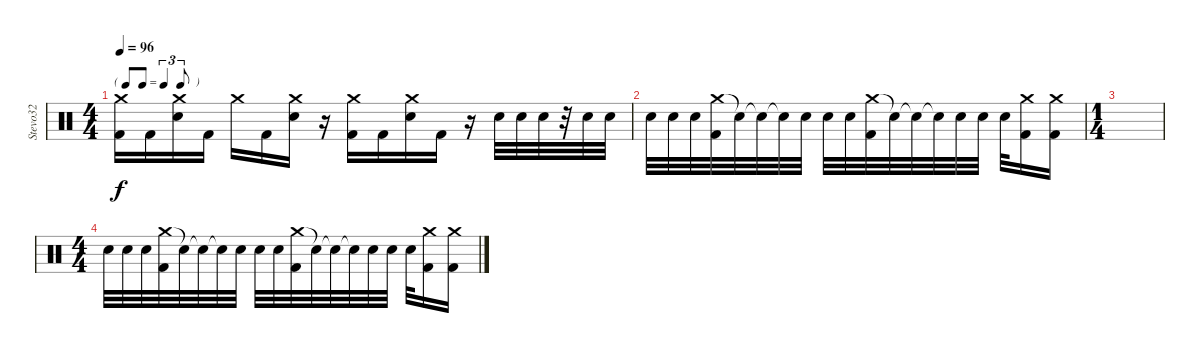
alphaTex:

\track ("Stevo32" "Stevo32") {instrument percussion}
\staff {score}
\articulation defaults
\ts (4 4)
\tf triplet8th
\tempo 96
\clef neutral
\ks c
("Crash medium (hit)" "Kick (hit) 2").16{dy f} "Kick (hit) 2".16 ("Crash medium (hit)" "Electric Snare (hit)").16 "Kick (hit) 2".16 "Crash medium (hit)".16 "Kick (hit) 2".16 ("Crash medium (hit)" "Electric Snare (hit)").16 r.16 ("Crash medium (hit)" "Kick (hit) 2").16 "Kick (hit) 2".16 ("Crash medium (hit)" "Electric Snare (hit)").16 "Kick (hit) 2".16 r.16 "Electric Snare (hit)".32 "Electric Snare (hit)".32 "Electric Snare (hit)".32 r.32 "Electric Snare (hit)".32 "Electric Snare (hit)".32 |
"Electric Snare (hit)".32 "Electric Snare (hit)".32 "Electric Snare (hit)".32 ("Crash medium (hit)" "Kick (hit) 2").32 "Snare (hit)"{t}.32 "Snare (hit)"{t}.32 "Snare (hit)"{t}.32 "Electric Snare (hit)".32 "Electric Snare (hit)".32 "Electric Snare (hit)".32 ("Crash medium (hit)" "Kick (hit) 2").32 "Snare (hit)"{t}.32 "Snare (hit)"{t}.32 "Snare (hit)"{t}.32 "Electric Snare (hit)".32 "Electric Snare (hit)".32 "Electric Snare (hit)".32 ("Crash medium (hit)" "Kick (hit) 2").16 ("Crash medium (hit)" "Kick (hit) 2").16 |
\ts (1 4)
|
\ts (4 4)
"Electric Snare (hit)".32 "Electric Snare (hit)".32 "Electric Snare (hit)".32 ("Crash medium (hit)" "Kick (hit) 2").32 "Snare (hit)"{t}.32 "Snare (hit)"{t}.32 "Snare (hit)"{t}.32 "Electric Snare (hit)".32 "Electric Snare (hit)".32 "Electric Snare (hit)".32 ("Crash medium (hit)" "Kick (hit) 2").32 "Snare (hit)"{t}.32 "Snare (hit)"{t}.32 "Snare (hit)"{t}.32 "Electric Snare (hit)".32 "Electric Snare (hit)".32 "Electric Snare (hit)".32 ("Crash medium (hit)" "Kick (hit) 2").16 ("Crash medium (hit)" "Kick (hit) 2").16
